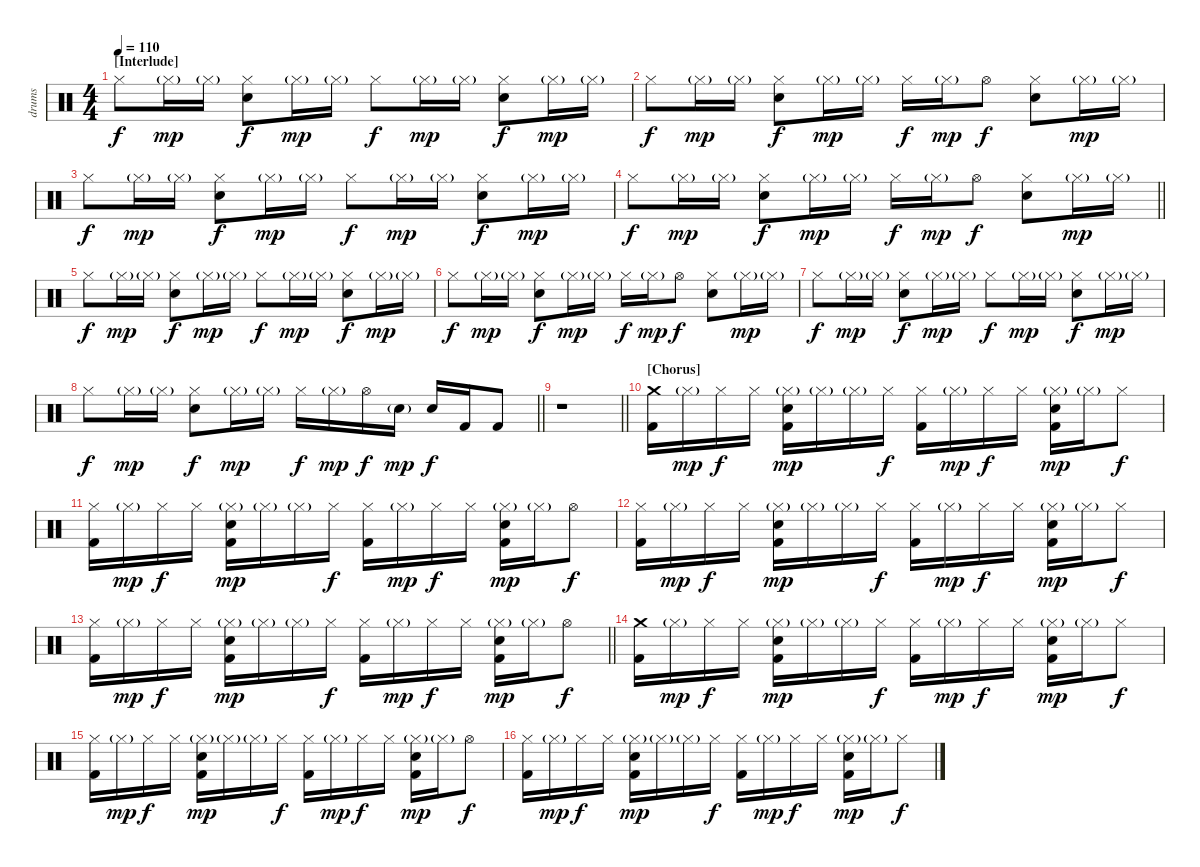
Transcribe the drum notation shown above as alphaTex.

\track ("drums" "drums") {instrument percussion}
\staff {score}
\articulation defaults
\ts (4 4)
\section ("" "[Interlude]")
\tempo 110
\clef neutral
\ks c "Hi-Hat (closed)".8{dy f} "Hi-Hat (closed)"{g}.16{dy mp} "Hi-Hat (closed)"{g}.16
("Hi-Hat (closed)" "Hand Clap (hit)").8{dy f} "Hi-Hat (closed)"{g}.16{dy mp} "Hi-Hat (closed)"{g}.16 "Hi-Hat (closed)".8{dy f} "Hi-Hat (closed)"{g}.16{dy mp} "Hi-Hat (closed)"{g}.16 ("Hi-Hat (closed)" "Hand Clap (hit)").8{dy f} "Hi-Hat (closed)"{g}.16{dy mp} "Hi-Hat (closed)"{g}.16 |
"Hi-Hat (closed)".8{dy f} "Hi-Hat (closed)"{g}.16{dy mp} "Hi-Hat (closed)"{g}.16 ("Hi-Hat (closed)" "Hand Clap (hit)").8{dy f} "Hi-Hat (closed)"{g}.16{dy mp} "Hi-Hat (closed)"{g}.16 "Hi-Hat (closed)".16{dy f} "Hi-Hat (closed)"{g}.16{dy mp} "Hi-Hat (open)".8{dy f} ("Hi-Hat (closed)" "Hand Clap (hit)").8 "Hi-Hat (closed)"{g}.16{dy mp} "Hi-Hat (closed)"{g}.16 |
"Hi-Hat (closed)".8{dy f} "Hi-Hat (closed)"{g}.16{dy mp} "Hi-Hat (closed)"{g}.16 ("Hi-Hat (closed)" "Hand Clap (hit)").8{dy f} "Hi-Hat (closed)"{g}.16{dy mp} "Hi-Hat (closed)"{g}.16 "Hi-Hat (closed)".8{dy f} "Hi-Hat (closed)"{g}.16{dy mp} "Hi-Hat (closed)"{g}.16 ("Hi-Hat (closed)" "Hand Clap (hit)").8{dy f} "Hi-Hat (closed)"{g}.16{dy mp} "Hi-Hat (closed)"{g}.16 |
\barLineRight lightlight "Hi-Hat (closed)".8{dy f} "Hi-Hat (closed)"{g}.16{dy mp} "Hi-Hat (closed)"{g}.16
("Hi-Hat (closed)" "Hand Clap (hit)").8{dy f} "Hi-Hat (closed)"{g}.16{dy mp} "Hi-Hat (closed)"{g}.16 "Hi-Hat (closed)".16{dy f} "Hi-Hat (closed)"{g}.16{dy mp} "Hi-Hat (open)".8{dy f} ("Hi-Hat (closed)" "Hand Clap (hit)").8 "Hi-Hat (closed)"{g}.16{dy mp} "Hi-Hat (closed)"{g}.16 |
"Hi-Hat (closed)".8{dy f} "Hi-Hat (closed)"{g}.16{dy mp} "Hi-Hat (closed)"{g}.16 ("Hi-Hat (closed)" "Hand Clap (hit)").8{dy f} "Hi-Hat (closed)"{g}.16{dy mp} "Hi-Hat (closed)"{g}.16 "Hi-Hat (closed)".8{dy f} "Hi-Hat (closed)"{g}.16{dy mp} "Hi-Hat (closed)"{g}.16 ("Hi-Hat (closed)" "Hand Clap (hit)").8{dy f} "Hi-Hat (closed)"{g}.16{dy mp} "Hi-Hat (closed)"{g}.16 |
"Hi-Hat (closed)".8{dy f} "Hi-Hat (closed)"{g}.16{dy mp} "Hi-Hat (closed)"{g}.16 ("Hi-Hat (closed)" "Hand Clap (hit)").8{dy f} "Hi-Hat (closed)"{g}.16{dy mp} "Hi-Hat (closed)"{g}.16 "Hi-Hat (closed)".16{dy f} "Hi-Hat (closed)"{g}.16{dy mp} "Hi-Hat (open)".8{dy f} ("Hi-Hat (closed)" "Hand Clap (hit)").8 "Hi-Hat (closed)"{g}.16{dy mp} "Hi-Hat (closed)"{g}.16 |
"Hi-Hat (closed)".8{dy f} "Hi-Hat (closed)"{g}.16{dy mp} "Hi-Hat (closed)"{g}.16 ("Hi-Hat (closed)" "Hand Clap (hit)").8{dy f} "Hi-Hat (closed)"{g}.16{dy mp} "Hi-Hat (closed)"{g}.16 "Hi-Hat (closed)".8{dy f} "Hi-Hat (closed)"{g}.16{dy mp} "Hi-Hat (closed)"{g}.16 ("Hi-Hat (closed)" "Hand Clap (hit)").8{dy f} "Hi-Hat (closed)"{g}.16{dy mp} "Hi-Hat (closed)"{g}.16 |
\barLineRight lightlight "Hi-Hat (closed)".8{dy f} "Hi-Hat (closed)"{g}.16{dy mp} "Hi-Hat (closed)"{g}.16
("Hi-Hat (closed)" "Hand Clap (hit)").8{dy f} "Hi-Hat (closed)"{g}.16{dy mp} "Hi-Hat (closed)"{g}.16 "Hi-Hat (closed)".16{dy f} "Hi-Hat (closed)"{g}.16{dy mp} "Hi-Hat (open)".16{dy f} "Electric Snare (hit)"{g}.16{dy mp} "Electric Snare (hit)".16{dy f} "Kick (hit) 2".16 "Kick (hit) 2".8 |
\barLineRight lightlight
r.1 |
\section ("" "[Chorus]")
("Crash medium (hit)" "Kick (hit) 2").16 "Hi-Hat (closed)"{g}.16{dy mp} "Hi-Hat (closed)".16{dy f} "Hi-Hat (closed)".16 ("Hi-Hat (closed)"{g} "Electric Snare (hit)" "Kick (hit) 2").16{dy mp} "Hi-Hat (closed)"{g}.16 "Hi-Hat (closed)"{g}.16 "Hi-Hat (closed)".16{dy f} ("Hi-Hat (closed)" "Kick (hit) 2").16 "Hi-Hat (closed)"{g}.16{dy mp} "Hi-Hat (closed)".16{dy f} "Hi-Hat (closed)".16 ("Hi-Hat (closed)"{g} "Electric Snare (hit)" "Kick (hit) 2").16{dy mp} "Hi-Hat (closed)"{g}.16 "Hi-Hat (closed)".8{dy f} |
("Hi-Hat (closed)" "Kick (hit) 2").16 "Hi-Hat (closed)"{g}.16{dy mp} "Hi-Hat (closed)".16{dy f} "Hi-Hat (closed)".16 ("Hi-Hat (closed)"{g} "Electric Snare (hit)" "Kick (hit) 2").16{dy mp} "Hi-Hat (closed)"{g}.16 "Hi-Hat (closed)"{g}.16 "Hi-Hat (closed)".16{dy f} ("Hi-Hat (closed)" "Kick (hit) 2").16 "Hi-Hat (closed)"{g}.16{dy mp} "Hi-Hat (closed)".16{dy f} "Hi-Hat (closed)".16 ("Hi-Hat (closed)"{g} "Electric Snare (hit)" "Kick (hit) 2").16{dy mp} "Hi-Hat (closed)"{g}.16 "Hi-Hat (open)".8{dy f} |
("Hi-Hat (closed)" "Kick (hit) 2").16 "Hi-Hat (closed)"{g}.16{dy mp} "Hi-Hat (closed)".16{dy f} "Hi-Hat (closed)".16 ("Hi-Hat (closed)"{g} "Electric Snare (hit)" "Kick (hit) 2").16{dy mp} "Hi-Hat (closed)"{g}.16 "Hi-Hat (closed)"{g}.16 "Hi-Hat (closed)".16{dy f} ("Hi-Hat (closed)" "Kick (hit) 2").16 "Hi-Hat (closed)"{g}.16{dy mp} "Hi-Hat (closed)".16{dy f} "Hi-Hat (closed)".16 ("Hi-Hat (closed)"{g} "Electric Snare (hit)" "Kick (hit) 2").16{dy mp} "Hi-Hat (closed)"{g}.16 "Hi-Hat (closed)".8{dy f} |
\barLineRight lightlight
("Hi-Hat (closed)" "Kick (hit) 2").16 "Hi-Hat (closed)"{g}.16{dy mp} "Hi-Hat (closed)".16{dy f} "Hi-Hat (closed)".16 ("Hi-Hat (closed)"{g} "Electric Snare (hit)" "Kick (hit) 2").16{dy mp} "Hi-Hat (closed)"{g}.16 "Hi-Hat (closed)"{g}.16 "Hi-Hat (closed)".16{dy f} ("Hi-Hat (closed)" "Kick (hit) 2").16 "Hi-Hat (closed)"{g}.16{dy mp} "Hi-Hat (closed)".16{dy f} "Hi-Hat (closed)".16 ("Hi-Hat (closed)"{g} "Electric Snare (hit)" "Kick (hit) 2").16{dy mp} "Hi-Hat (closed)"{g}.16 "Hi-Hat (open)".8{dy f} |
("Crash medium (hit)" "Kick (hit) 2").16 "Hi-Hat (closed)"{g}.16{dy mp} "Hi-Hat (closed)".16{dy f} "Hi-Hat (closed)".16 ("Hi-Hat (closed)"{g} "Electric Snare (hit)" "Kick (hit) 2").16{dy mp} "Hi-Hat (closed)"{g}.16 "Hi-Hat (closed)"{g}.16 "Hi-Hat (closed)".16{dy f} ("Hi-Hat (closed)" "Kick (hit) 2").16 "Hi-Hat (closed)"{g}.16{dy mp} "Hi-Hat (closed)".16{dy f} "Hi-Hat (closed)".16 ("Hi-Hat (closed)"{g} "Electric Snare (hit)" "Kick (hit) 2").16{dy mp} "Hi-Hat (closed)"{g}.16 "Hi-Hat (closed)".8{dy f} |
("Hi-Hat (closed)" "Kick (hit) 2").16 "Hi-Hat (closed)"{g}.16{dy mp} "Hi-Hat (closed)".16{dy f} "Hi-Hat (closed)".16 ("Hi-Hat (closed)"{g} "Electric Snare (hit)" "Kick (hit) 2").16{dy mp} "Hi-Hat (closed)"{g}.16 "Hi-Hat (closed)"{g}.16 "Hi-Hat (closed)".16{dy f} ("Hi-Hat (closed)" "Kick (hit) 2").16 "Hi-Hat (closed)"{g}.16{dy mp} "Hi-Hat (closed)".16{dy f} "Hi-Hat (closed)".16 ("Hi-Hat (closed)"{g} "Electric Snare (hit)" "Kick (hit) 2").16{dy mp} "Hi-Hat (closed)"{g}.16 "Hi-Hat (open)".8{dy f} |
("Hi-Hat (closed)" "Kick (hit) 2").16 "Hi-Hat (closed)"{g}.16{dy mp} "Hi-Hat (closed)".16{dy f} "Hi-Hat (closed)".16 ("Hi-Hat (closed)"{g} "Electric Snare (hit)" "Kick (hit) 2").16{dy mp} "Hi-Hat (closed)"{g}.16 "Hi-Hat (closed)"{g}.16 "Hi-Hat (closed)".16{dy f} ("Hi-Hat (closed)" "Kick (hit) 2").16 "Hi-Hat (closed)"{g}.16{dy mp} "Hi-Hat (closed)".16{dy f} "Hi-Hat (closed)".16 ("Hi-Hat (closed)"{g} "Electric Snare (hit)" "Kick (hit) 2").16{dy mp} "Hi-Hat (closed)"{g}.16 "Hi-Hat (closed)".8{dy f}
